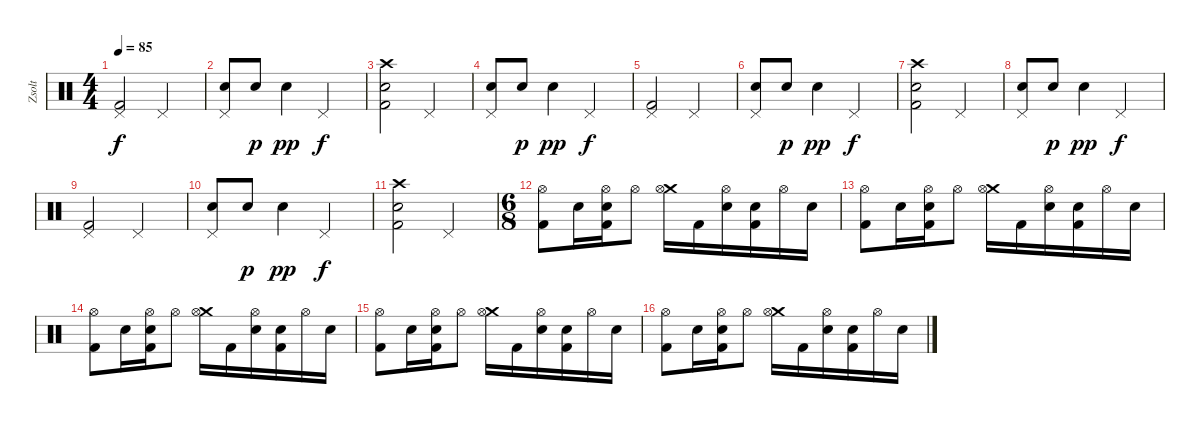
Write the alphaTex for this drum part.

\track ("Zsolt" "Zsolt") {instrument percussion}
\staff {score}
\articulation defaults
\ts (4 4)
\tempo 85
\clef neutral
\ks c
("Pedal Hi-Hat (hit)" "Kick (hit) 2").2{dy f} "Pedal Hi-Hat (hit)".2 |
("Pedal Hi-Hat (hit)" "Electric Snare (hit)").8 "Electric Snare (hit)".8{dy p} "Electric Snare (hit)".4{dy pp} "Pedal Hi-Hat (hit)".2{dy f} |
("Crash high (hit)" "Electric Snare (hit)" "Kick (hit) 2").2 "Pedal Hi-Hat (hit)".2 |
("Pedal Hi-Hat (hit)" "Electric Snare (hit)").8 "Electric Snare (hit)".8{dy p} "Electric Snare (hit)".4{dy pp} "Pedal Hi-Hat (hit)".2{dy f} |
("Pedal Hi-Hat (hit)" "Kick (hit) 2").2 "Pedal Hi-Hat (hit)".2 |
("Pedal Hi-Hat (hit)" "Electric Snare (hit)").8 "Electric Snare (hit)".8{dy p} "Electric Snare (hit)".4{dy pp} "Pedal Hi-Hat (hit)".2{dy f} |
("Crash high (hit)" "Electric Snare (hit)" "Kick (hit) 2").2 "Pedal Hi-Hat (hit)".2 |
("Pedal Hi-Hat (hit)" "Electric Snare (hit)").8 "Electric Snare (hit)".8{dy p} "Electric Snare (hit)".4{dy pp} "Pedal Hi-Hat (hit)".2{dy f} |
("Pedal Hi-Hat (hit)" "Kick (hit) 2").2 "Pedal Hi-Hat (hit)".2 |
("Pedal Hi-Hat (hit)" "Electric Snare (hit)").8 "Electric Snare (hit)".8{dy p} "Electric Snare (hit)".4{dy pp} "Pedal Hi-Hat (hit)".2{dy f} |
("Crash high (hit)" "Electric Snare (hit)" "Kick (hit) 2").2 "Pedal Hi-Hat (hit)".2 |
\ts (6 8)
("Hi-Hat (open)" "Kick (hit) 2").8 "Snare (hit) 2".16 ("Hi-Hat (open)" "Snare (hit) 2" "Kick (hit) 2").16 "Hi-Hat (open)".8 ("Crash medium (hit)" "Hi-Hat (open)").16 "Kick (hit) 2".16 ("Hi-Hat (open)" "Snare (hit) 2").16 ("Snare (hit) 2" "Kick (hit) 2").16 "Hi-Hat (open)".16 "Snare (hit) 2".16 |
("Hi-Hat (open)" "Kick (hit) 2").8 "Snare (hit) 2".16 ("Hi-Hat (open)" "Snare (hit) 2" "Kick (hit) 2").16 "Hi-Hat (open)".8 ("Crash medium (hit)" "Hi-Hat (open)").16 "Kick (hit) 2".16 ("Hi-Hat (open)" "Snare (hit) 2").16 ("Snare (hit) 2" "Kick (hit) 2").16 "Hi-Hat (open)".16 "Snare (hit) 2".16 |
("Hi-Hat (open)" "Kick (hit) 2").8 "Snare (hit) 2".16 ("Hi-Hat (open)" "Snare (hit) 2" "Kick (hit) 2").16 "Hi-Hat (open)".8 ("Crash medium (hit)" "Hi-Hat (open)").16 "Kick (hit) 2".16 ("Hi-Hat (open)" "Snare (hit) 2").16 ("Snare (hit) 2" "Kick (hit) 2").16 "Hi-Hat (open)".16 "Snare (hit) 2".16 |
("Hi-Hat (open)" "Kick (hit) 2").8 "Snare (hit) 2".16 ("Hi-Hat (open)" "Snare (hit) 2" "Kick (hit) 2").16 "Hi-Hat (open)".8 ("Crash medium (hit)" "Hi-Hat (open)").16 "Kick (hit) 2".16 ("Hi-Hat (open)" "Snare (hit) 2").16 ("Snare (hit) 2" "Kick (hit) 2").16 "Hi-Hat (open)".16 "Snare (hit) 2".16 |
("Hi-Hat (open)" "Kick (hit) 2").8 "Snare (hit) 2".16 ("Hi-Hat (open)" "Snare (hit) 2" "Kick (hit) 2").16 "Hi-Hat (open)".8 ("Crash medium (hit)" "Hi-Hat (open)").16 "Kick (hit) 2".16 ("Hi-Hat (open)" "Snare (hit) 2").16 ("Snare (hit) 2" "Kick (hit) 2").16 "Hi-Hat (open)".16 "Snare (hit) 2".16
